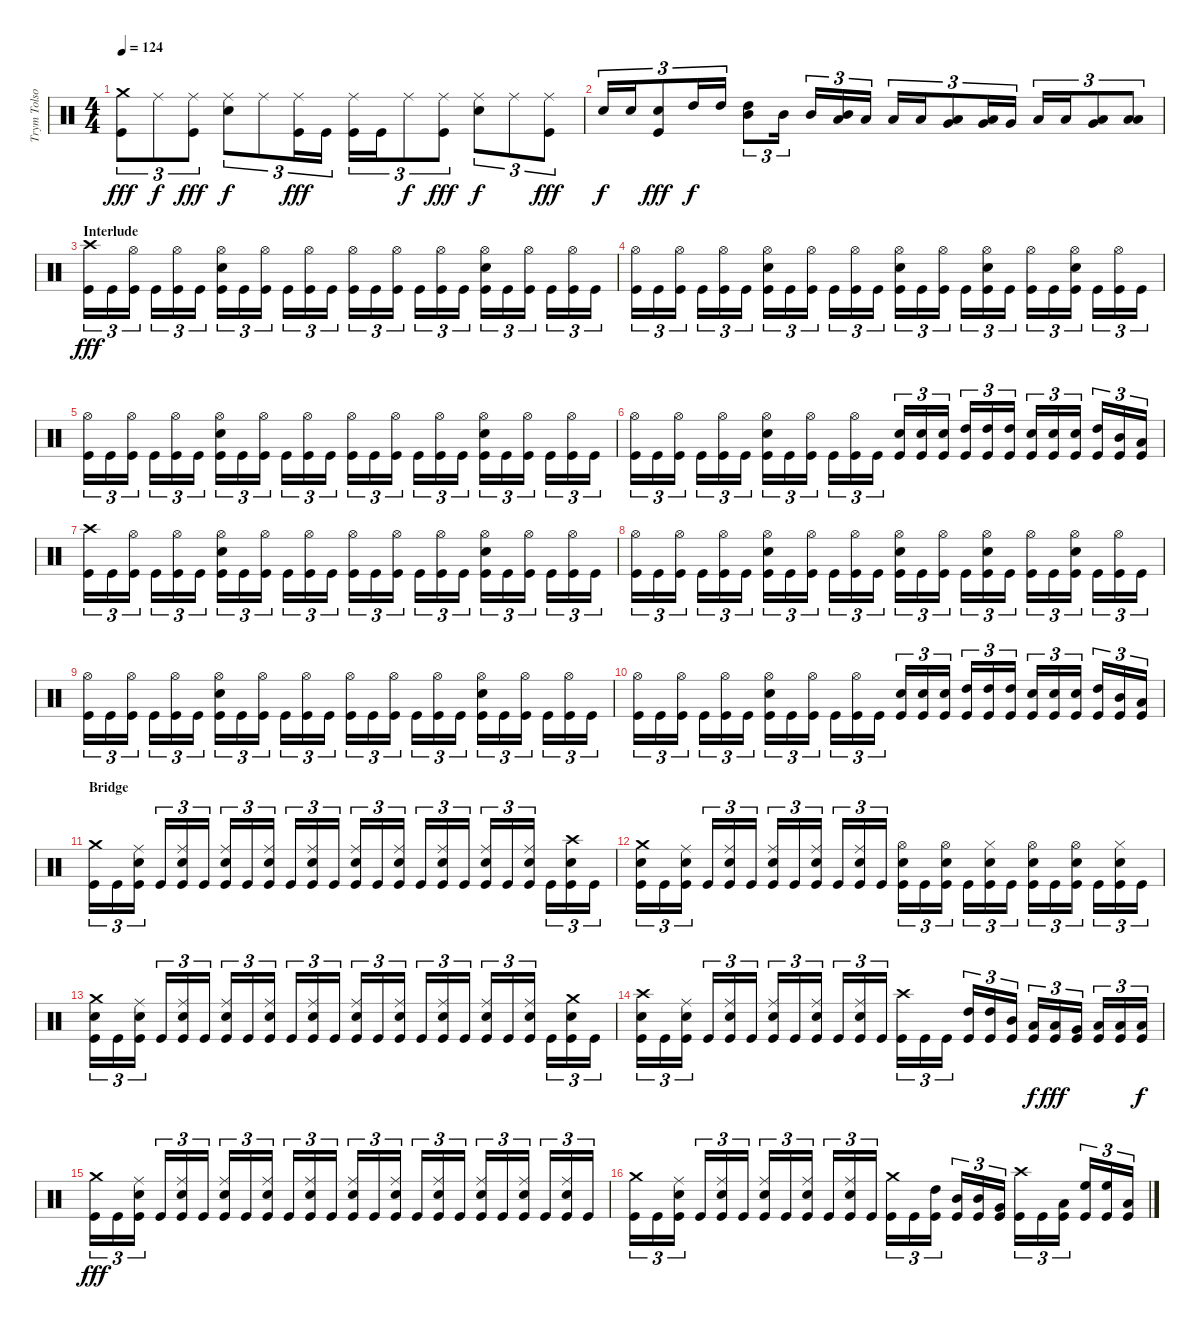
\track ("Trym Tolson" "Trym Tolso") {instrument percussion}
\staff {score}
\articulation defaults
\ts (4 4)
\tempo 124
\clef neutral
\ks c
("Crash medium (hit)" "Kick (hit)").8{tu (3 2) dy fff} "Ride (middle)".8{tu (3 2) dy f} ("Ride (middle)" "Kick (hit)").8{tu (3 2) dy fff} ("Ride (middle)" "Electric Snare (hit)").8{tu (3 2) dy f} "Ride (middle)".8{tu (3 2)} ("Ride (middle)" "Kick (hit)").16{tu (3 2) dy fff} "Kick (hit)".16{tu (3 2)} ("Ride (middle)" "Kick (hit)").16{tu (3 2)} "Kick (hit)".16{tu (3 2)} "Ride (middle)".8{tu (3 2) dy f} ("Ride (middle)" "Kick (hit)").8{tu (3 2) dy fff} ("Ride (middle)" "Electric Snare (hit)").8{tu (3 2) dy f} "Ride (middle)".8{tu (3 2)} ("Ride (middle)" "Kick (hit)").8{tu (3 2) dy fff} |
"Electric Snare (hit)".16{tu (3 2) dy f} "Electric Snare (hit)".16{tu (3 2)} ("Electric Snare (hit)" "Kick (hit)").8{tu (3 2) dy fff} "High Tom (hit)".16{tu (3 2) dy f} "High Tom (hit)".16{tu (3 2)} ("Mid Tom (hit)" "High Tom (hit)").8{tu (3 2)} "Mid Tom (hit)".16{tu (3 2)} "Mid Tom (hit)".16{tu (3 2)} ("Low Tom (hit)" "Mid Tom (hit)").16{tu (3 2)} "Low Tom (hit)".16{tu (3 2)} "Low Tom (hit)".16{tu (3 2)} "Low Tom (hit)".16{tu (3 2)} ("Very Low Tom (hit)" "Low Tom (hit)").8{tu (3 2)} ("Very Low Tom (hit)" "Low Tom (hit)").16{tu (3 2)} "Very Low Tom (hit)".16{tu (3 2)} "Low Floor Tom (hit)".16{tu (3 2)} "Low Floor Tom (hit)".16{tu (3 2)} ("Low Floor Tom (hit)" "Very Low Tom (hit)").8{tu (3 2)} ("Low Floor Tom (hit)" "Low Floor Tom (hit)").8{tu (3 2)} |
\section ("" "Interlude")
("Crash high (hit)" "Kick (hit)").16{tu (3 2) dy fff} "Kick (hit)".16{tu (3 2)} ("Hi-Hat (open)" "Kick (hit)").16{tu (3 2)} "Kick (hit)".16{tu (3 2)} ("Hi-Hat (open)" "Kick (hit)").16{tu (3 2)} "Kick (hit)".16{tu (3 2)} ("Hi-Hat (open)" "Electric Snare (hit)" "Kick (hit)").16{tu (3 2)} "Kick (hit)".16{tu (3 2)} ("Hi-Hat (open)" "Kick (hit)").16{tu (3 2)} "Kick (hit)".16{tu (3 2)} ("Hi-Hat (open)" "Kick (hit)").16{tu (3 2)} "Kick (hit)".16{tu (3 2)} ("Hi-Hat (open)" "Kick (hit)").16{tu (3 2)} "Kick (hit)".16{tu (3 2)} ("Hi-Hat (open)" "Kick (hit)").16{tu (3 2)} "Kick (hit)".16{tu (3 2)} ("Hi-Hat (open)" "Kick (hit)").16{tu (3 2)} "Kick (hit)".16{tu (3 2)} ("Hi-Hat (open)" "Electric Snare (hit)" "Kick (hit)").16{tu (3 2)} "Kick (hit)".16{tu (3 2)} ("Hi-Hat (open)" "Kick (hit)").16{tu (3 2)} "Kick (hit)".16{tu (3 2)} ("Hi-Hat (open)" "Kick (hit)").16{tu (3 2)} "Kick (hit)".16{tu (3 2)} |
("Hi-Hat (open)" "Kick (hit)").16{tu (3 2)} "Kick (hit)".16{tu (3 2)} ("Hi-Hat (open)" "Kick (hit)").16{tu (3 2)} "Kick (hit)".16{tu (3 2)} ("Hi-Hat (open)" "Kick (hit)").16{tu (3 2)} "Kick (hit)".16{tu (3 2)} ("Hi-Hat (open)" "Electric Snare (hit)" "Kick (hit)").16{tu (3 2)} "Kick (hit)".16{tu (3 2)} ("Hi-Hat (open)" "Kick (hit)").16{tu (3 2)} "Kick (hit)".16{tu (3 2)} ("Hi-Hat (open)" "Kick (hit)").16{tu (3 2)} "Kick (hit)".16{tu (3 2)} ("Hi-Hat (open)" "Electric Snare (hit)" "Kick (hit)").16{tu (3 2)} "Kick (hit)".16{tu (3 2)} ("Hi-Hat (open)" "Kick (hit)").16{tu (3 2)} "Kick (hit)".16{tu (3 2)} ("Hi-Hat (open)" "Electric Snare (hit)" "Kick (hit)").16{tu (3 2)} "Kick (hit)".16{tu (3 2)} ("Hi-Hat (open)" "Kick (hit)").16{tu (3 2)} "Kick (hit)".16{tu (3 2)} ("Hi-Hat (open)" "Electric Snare (hit)" "Kick (hit)").16{tu (3 2)} "Kick (hit)".16{tu (3 2)} ("Hi-Hat (open)" "Kick (hit)").16{tu (3 2)} "Kick (hit)".16{tu (3 2)} |
("Hi-Hat (open)" "Kick (hit)").16{tu (3 2)} "Kick (hit)".16{tu (3 2)} ("Hi-Hat (open)" "Kick (hit)").16{tu (3 2)} "Kick (hit)".16{tu (3 2)} ("Hi-Hat (open)" "Kick (hit)").16{tu (3 2)} "Kick (hit)".16{tu (3 2)} ("Hi-Hat (open)" "Electric Snare (hit)" "Kick (hit)").16{tu (3 2)} "Kick (hit)".16{tu (3 2)} ("Hi-Hat (open)" "Kick (hit)").16{tu (3 2)} "Kick (hit)".16{tu (3 2)} ("Hi-Hat (open)" "Kick (hit)").16{tu (3 2)} "Kick (hit)".16{tu (3 2)} ("Hi-Hat (open)" "Kick (hit)").16{tu (3 2)} "Kick (hit)".16{tu (3 2)} ("Hi-Hat (open)" "Kick (hit)").16{tu (3 2)} "Kick (hit)".16{tu (3 2)} ("Hi-Hat (open)" "Kick (hit)").16{tu (3 2)} "Kick (hit)".16{tu (3 2)} ("Hi-Hat (open)" "Electric Snare (hit)" "Kick (hit)").16{tu (3 2)} "Kick (hit)".16{tu (3 2)} ("Hi-Hat (open)" "Kick (hit)").16{tu (3 2)} "Kick (hit)".16{tu (3 2)} ("Hi-Hat (open)" "Kick (hit)").16{tu (3 2)} "Kick (hit)".16{tu (3 2)} |
("Hi-Hat (open)" "Kick (hit)").16{tu (3 2)} "Kick (hit)".16{tu (3 2)} ("Hi-Hat (open)" "Kick (hit)").16{tu (3 2)} "Kick (hit)".16{tu (3 2)} ("Hi-Hat (open)" "Kick (hit)").16{tu (3 2)} "Kick (hit)".16{tu (3 2)} ("Hi-Hat (open)" "Electric Snare (hit)" "Kick (hit)").16{tu (3 2)} "Kick (hit)".16{tu (3 2)} ("Hi-Hat (open)" "Kick (hit)").16{tu (3 2)} "Kick (hit)".16{tu (3 2)} ("Hi-Hat (open)" "Kick (hit)").16{tu (3 2)} "Kick (hit)".16{tu (3 2)} ("Electric Snare (hit)" "Kick (hit)").16{tu (3 2)} ("Electric Snare (hit)" "Kick (hit)").16{tu (3 2)} ("Electric Snare (hit)" "Kick (hit)").16{tu (3 2)} ("High Tom (hit)" "Kick (hit)").16{tu (3 2)} ("High Tom (hit)" "Kick (hit)").16{tu (3 2)} ("High Tom (hit)" "Kick (hit)").16{tu (3 2)} ("Electric Snare (hit)" "Kick (hit)").16{tu (3 2)} ("Electric Snare (hit)" "Kick (hit)").16{tu (3 2)} ("Electric Snare (hit)" "Kick (hit)").16{tu (3 2)} ("High Tom (hit)" "Kick (hit)").16{tu (3 2)} ("Mid Tom (hit)" "Kick (hit)").16{tu (3 2)} ("Low Tom (hit)" "Kick (hit)").16{tu (3 2)} |
("Crash high (hit)" "Kick (hit)").16{tu (3 2)} "Kick (hit)".16{tu (3 2)} ("Hi-Hat (open)" "Kick (hit)").16{tu (3 2)} "Kick (hit)".16{tu (3 2)} ("Hi-Hat (open)" "Kick (hit)").16{tu (3 2)} "Kick (hit)".16{tu (3 2)} ("Hi-Hat (open)" "Electric Snare (hit)" "Kick (hit)").16{tu (3 2)} "Kick (hit)".16{tu (3 2)} ("Hi-Hat (open)" "Kick (hit)").16{tu (3 2)} "Kick (hit)".16{tu (3 2)} ("Hi-Hat (open)" "Kick (hit)").16{tu (3 2)} "Kick (hit)".16{tu (3 2)} ("Hi-Hat (open)" "Kick (hit)").16{tu (3 2)} "Kick (hit)".16{tu (3 2)} ("Hi-Hat (open)" "Kick (hit)").16{tu (3 2)} "Kick (hit)".16{tu (3 2)} ("Hi-Hat (open)" "Kick (hit)").16{tu (3 2)} "Kick (hit)".16{tu (3 2)} ("Hi-Hat (open)" "Electric Snare (hit)" "Kick (hit)").16{tu (3 2)} "Kick (hit)".16{tu (3 2)} ("Hi-Hat (open)" "Kick (hit)").16{tu (3 2)} "Kick (hit)".16{tu (3 2)} ("Hi-Hat (open)" "Kick (hit)").16{tu (3 2)} "Kick (hit)".16{tu (3 2)} |
("Hi-Hat (open)" "Kick (hit)").16{tu (3 2)} "Kick (hit)".16{tu (3 2)} ("Hi-Hat (open)" "Kick (hit)").16{tu (3 2)} "Kick (hit)".16{tu (3 2)} ("Hi-Hat (open)" "Kick (hit)").16{tu (3 2)} "Kick (hit)".16{tu (3 2)} ("Hi-Hat (open)" "Electric Snare (hit)" "Kick (hit)").16{tu (3 2)} "Kick (hit)".16{tu (3 2)} ("Hi-Hat (open)" "Kick (hit)").16{tu (3 2)} "Kick (hit)".16{tu (3 2)} ("Hi-Hat (open)" "Kick (hit)").16{tu (3 2)} "Kick (hit)".16{tu (3 2)} ("Hi-Hat (open)" "Electric Snare (hit)" "Kick (hit)").16{tu (3 2)} "Kick (hit)".16{tu (3 2)} ("Hi-Hat (open)" "Kick (hit)").16{tu (3 2)} "Kick (hit)".16{tu (3 2)} ("Hi-Hat (open)" "Electric Snare (hit)" "Kick (hit)").16{tu (3 2)} "Kick (hit)".16{tu (3 2)} ("Hi-Hat (open)" "Kick (hit)").16{tu (3 2)} "Kick (hit)".16{tu (3 2)} ("Hi-Hat (open)" "Electric Snare (hit)" "Kick (hit)").16{tu (3 2)} "Kick (hit)".16{tu (3 2)} ("Hi-Hat (open)" "Kick (hit)").16{tu (3 2)} "Kick (hit)".16{tu (3 2)} |
("Hi-Hat (open)" "Kick (hit)").16{tu (3 2)} "Kick (hit)".16{tu (3 2)} ("Hi-Hat (open)" "Kick (hit)").16{tu (3 2)} "Kick (hit)".16{tu (3 2)} ("Hi-Hat (open)" "Kick (hit)").16{tu (3 2)} "Kick (hit)".16{tu (3 2)} ("Hi-Hat (open)" "Electric Snare (hit)" "Kick (hit)").16{tu (3 2)} "Kick (hit)".16{tu (3 2)} ("Hi-Hat (open)" "Kick (hit)").16{tu (3 2)} "Kick (hit)".16{tu (3 2)} ("Hi-Hat (open)" "Kick (hit)").16{tu (3 2)} "Kick (hit)".16{tu (3 2)} ("Hi-Hat (open)" "Kick (hit)").16{tu (3 2)} "Kick (hit)".16{tu (3 2)} ("Hi-Hat (open)" "Kick (hit)").16{tu (3 2)} "Kick (hit)".16{tu (3 2)} ("Hi-Hat (open)" "Kick (hit)").16{tu (3 2)} "Kick (hit)".16{tu (3 2)} ("Hi-Hat (open)" "Electric Snare (hit)" "Kick (hit)").16{tu (3 2)} "Kick (hit)".16{tu (3 2)} ("Hi-Hat (open)" "Kick (hit)").16{tu (3 2)} "Kick (hit)".16{tu (3 2)} ("Hi-Hat (open)" "Kick (hit)").16{tu (3 2)} "Kick (hit)".16{tu (3 2)} |
("Hi-Hat (open)" "Kick (hit)").16{tu (3 2)} "Kick (hit)".16{tu (3 2)} ("Hi-Hat (open)" "Kick (hit)").16{tu (3 2)} "Kick (hit)".16{tu (3 2)} ("Hi-Hat (open)" "Kick (hit)").16{tu (3 2)} "Kick (hit)".16{tu (3 2)} ("Hi-Hat (open)" "Electric Snare (hit)" "Kick (hit)").16{tu (3 2)} "Kick (hit)".16{tu (3 2)} ("Hi-Hat (open)" "Kick (hit)").16{tu (3 2)} "Kick (hit)".16{tu (3 2)} ("Hi-Hat (open)" "Kick (hit)").16{tu (3 2)} "Kick (hit)".16{tu (3 2)} ("Electric Snare (hit)" "Kick (hit)").16{tu (3 2)} ("Electric Snare (hit)" "Kick (hit)").16{tu (3 2)} ("Electric Snare (hit)" "Kick (hit)").16{tu (3 2)} ("High Tom (hit)" "Kick (hit)").16{tu (3 2)} ("High Tom (hit)" "Kick (hit)").16{tu (3 2)} ("High Tom (hit)" "Kick (hit)").16{tu (3 2)} ("Electric Snare (hit)" "Kick (hit)").16{tu (3 2)} ("Electric Snare (hit)" "Kick (hit)").16{tu (3 2)} ("Electric Snare (hit)" "Kick (hit)").16{tu (3 2)} ("High Tom (hit)" "Kick (hit)").16{tu (3 2)} ("Mid Tom (hit)" "Kick (hit)").16{tu (3 2)} ("Low Tom (hit)" "Kick (hit)").16{tu (3 2)} |
\section ("" "Bridge")
("Crash medium (hit)" "Kick (hit)").16{tu (3 2)} "Kick (hit)".16{tu (3 2)} ("Ride (middle)" "Electric Snare (hit)" "Kick (hit)").16{tu (3 2)} "Kick (hit)".16{tu (3 2)} ("Ride (middle)" "Electric Snare (hit)" "Kick (hit)").16{tu (3 2)} "Kick (hit)".16{tu (3 2)} ("Ride (middle)" "Electric Snare (hit)" "Kick (hit)").16{tu (3 2)} "Kick (hit)".16{tu (3 2)} ("Ride (middle)" "Electric Snare (hit)" "Kick (hit)").16{tu (3 2)} "Kick (hit)".16{tu (3 2)} ("Ride (middle)" "Electric Snare (hit)" "Kick (hit)").16{tu (3 2)} "Kick (hit)".16{tu (3 2)} ("Ride (middle)" "Electric Snare (hit)" "Kick (hit)").16{tu (3 2)} "Kick (hit)".16{tu (3 2)} ("Ride (middle)" "Electric Snare (hit)" "Kick (hit)").16{tu (3 2)} "Kick (hit)".16{tu (3 2)} ("Ride (middle)" "Electric Snare (hit)" "Kick (hit)").16{tu (3 2)} "Kick (hit)".16{tu (3 2)} ("Ride (middle)" "Electric Snare (hit)" "Kick (hit)").16{tu (3 2)} "Kick (hit)".16{tu (3 2)} ("Ride (middle)" "Electric Snare (hit)" "Kick (hit)").16{tu (3 2)} "Kick (hit)".16{tu (3 2)} ("Crash high (hit)" "Electric Snare (hit)" "Kick (hit)").16{tu (3 2)} "Kick (hit)".16{tu (3 2)} |
("Crash medium (hit)" "Electric Snare (hit)" "Kick (hit)").16{tu (3 2)} "Kick (hit)".16{tu (3 2)} ("Ride (middle)" "Electric Snare (hit)" "Kick (hit)").16{tu (3 2)} "Kick (hit)".16{tu (3 2)} ("Ride (middle)" "Electric Snare (hit)" "Kick (hit)").16{tu (3 2)} "Kick (hit)".16{tu (3 2)} ("Ride (middle)" "Electric Snare (hit)" "Kick (hit)").16{tu (3 2)} "Kick (hit)".16{tu (3 2)} ("Ride (middle)" "Electric Snare (hit)" "Kick (hit)").16{tu (3 2)} "Kick (hit)".16{tu (3 2)} ("Ride (middle)" "Electric Snare (hit)" "Kick (hit)").16{tu (3 2)} "Kick (hit)".16{tu (3 2)} ("Hi-Hat (open)" "Electric Snare (hit)" "Kick (hit)").16{tu (3 2)} "Kick (hit)".16{tu (3 2)} ("Hi-Hat (open)" "Electric Snare (hit)" "Kick (hit)").16{tu (3 2)} "Kick (hit)".16{tu (3 2)} ("Hi-Hat (closed)" "Electric Snare (hit)" "Kick (hit)").16{tu (3 2)} "Kick (hit)".16{tu (3 2)} ("Hi-Hat (open)" "Electric Snare (hit)" "Kick (hit)").16{tu (3 2)} "Kick (hit)".16{tu (3 2)} ("Hi-Hat (open)" "Electric Snare (hit)" "Kick (hit)").16{tu (3 2)} "Kick (hit)".16{tu (3 2)} ("Hi-Hat (closed)" "Electric Snare (hit)" "Kick (hit)").16{tu (3 2)} "Kick (hit)".16{tu (3 2)} |
("Crash medium (hit)" "Electric Snare (hit)" "Kick (hit)").16{tu (3 2)} "Kick (hit)".16{tu (3 2)} ("Ride (middle)" "Electric Snare (hit)" "Kick (hit)").16{tu (3 2)} "Kick (hit)".16{tu (3 2)} ("Ride (middle)" "Electric Snare (hit)" "Kick (hit)").16{tu (3 2)} "Kick (hit)".16{tu (3 2)} ("Ride (middle)" "Electric Snare (hit)" "Kick (hit)").16{tu (3 2)} "Kick (hit)".16{tu (3 2)} ("Ride (middle)" "Electric Snare (hit)" "Kick (hit)").16{tu (3 2)} "Kick (hit)".16{tu (3 2)} ("Ride (middle)" "Electric Snare (hit)" "Kick (hit)").16{tu (3 2)} "Kick (hit)".16{tu (3 2)} ("Ride (middle)" "Electric Snare (hit)" "Kick (hit)").16{tu (3 2)} "Kick (hit)".16{tu (3 2)} ("Ride (middle)" "Electric Snare (hit)" "Kick (hit)").16{tu (3 2)} "Kick (hit)".16{tu (3 2)} ("Ride (middle)" "Electric Snare (hit)" "Kick (hit)").16{tu (3 2)} "Kick (hit)".16{tu (3 2)} ("Ride (middle)" "Electric Snare (hit)" "Kick (hit)").16{tu (3 2)} "Kick (hit)".16{tu (3 2)} ("Ride (middle)" "Electric Snare (hit)" "Kick (hit)").16{tu (3 2)} "Kick (hit)".16{tu (3 2)} ("Crash medium (hit)" "Electric Snare (hit)" "Kick (hit)").16{tu (3 2)} "Kick (hit)".16{tu (3 2)} |
("Crash high (hit)" "Electric Snare (hit)" "Kick (hit)").16{tu (3 2)} "Kick (hit)".16{tu (3 2)} ("Ride (middle)" "Electric Snare (hit)" "Kick (hit)").16{tu (3 2)} "Kick (hit)".16{tu (3 2)} ("Ride (middle)" "Electric Snare (hit)" "Kick (hit)").16{tu (3 2)} "Kick (hit)".16{tu (3 2)} ("Ride (middle)" "Electric Snare (hit)" "Kick (hit)").16{tu (3 2)} "Kick (hit)".16{tu (3 2)} ("Ride (middle)" "Electric Snare (hit)" "Kick (hit)").16{tu (3 2)} "Kick (hit)".16{tu (3 2)} ("Ride (middle)" "Electric Snare (hit)" "Kick (hit)").16{tu (3 2)} "Kick (hit)".16{tu (3 2)} ("Crash high (hit)" "Kick (hit)").16{tu (3 2)} "Kick (hit)".16{tu (3 2)} "Kick (hit)".16{tu (3 2)} ("High Tom (hit)" "Kick (hit)").16{tu (3 2)} ("High Tom (hit)" "Kick (hit)").16{tu (3 2)} ("Mid Tom (hit)" "Kick (hit)").16{tu (3 2)} ("Low Tom (hit)" "Kick (hit)").16{tu (3 2) dy f} ("Low Tom (hit)" "Kick (hit)").16{tu (3 2) dy fff} ("Very Low Tom (hit)" "Kick (hit)").16{tu (3 2)} ("Low Floor Tom (hit)" "Kick (hit)").16{tu (3 2)} ("Low Floor Tom (hit)" "Kick (hit)").16{tu (3 2)} ("Low Floor Tom (hit)" "Kick (hit)").16{tu (3 2) dy f} |
("Crash medium (hit)" "Kick (hit)").16{tu (3 2) dy fff} "Kick (hit)".16{tu (3 2)} ("Ride (middle)" "Electric Snare (hit)" "Kick (hit)").16{tu (3 2)} "Kick (hit)".16{tu (3 2)} ("Ride (middle)" "Electric Snare (hit)" "Kick (hit)").16{tu (3 2)} "Kick (hit)".16{tu (3 2)} ("Ride (middle)" "Electric Snare (hit)" "Kick (hit)").16{tu (3 2)} "Kick (hit)".16{tu (3 2)} ("Ride (middle)" "Electric Snare (hit)" "Kick (hit)").16{tu (3 2)} "Kick (hit)".16{tu (3 2)} ("Ride (middle)" "Electric Snare (hit)" "Kick (hit)").16{tu (3 2)} "Kick (hit)".16{tu (3 2)} ("Ride (middle)" "Electric Snare (hit)" "Kick (hit)").16{tu (3 2)} "Kick (hit)".16{tu (3 2)} ("Ride (middle)" "Electric Snare (hit)" "Kick (hit)").16{tu (3 2)} "Kick (hit)".16{tu (3 2)} ("Ride (middle)" "Electric Snare (hit)" "Kick (hit)").16{tu (3 2)} "Kick (hit)".16{tu (3 2)} ("Ride (middle)" "Electric Snare (hit)" "Kick (hit)").16{tu (3 2)} "Kick (hit)".16{tu (3 2)} ("Ride (middle)" "Electric Snare (hit)" "Kick (hit)").16{tu (3 2)} "Kick (hit)".16{tu (3 2)} ("Ride (middle)" "Electric Snare (hit)" "Kick (hit)").16{tu (3 2)} "Kick (hit)".16{tu (3 2)} |
("Crash medium (hit)" "Kick (hit)").16{tu (3 2)} "Kick (hit)".16{tu (3 2)} ("Ride (middle)" "Electric Snare (hit)" "Kick (hit)").16{tu (3 2)} "Kick (hit)".16{tu (3 2)} ("Ride (middle)" "Electric Snare (hit)" "Kick (hit)").16{tu (3 2)} "Kick (hit)".16{tu (3 2)} ("Ride (middle)" "Electric Snare (hit)" "Kick (hit)").16{tu (3 2)} "Kick (hit)".16{tu (3 2)} ("Ride (middle)" "Electric Snare (hit)" "Kick (hit)").16{tu (3 2)} "Kick (hit)".16{tu (3 2)} ("Ride (middle)" "Electric Snare (hit)" "Kick (hit)").16{tu (3 2)} "Kick (hit)".16{tu (3 2)} ("Crash medium (hit)" "Kick (hit)").16{tu (3 2)} "Kick (hit)".16{tu (3 2)} ("High Tom (hit)" "Kick (hit)").16{tu (3 2)} ("Mid Tom (hit)" "Kick (hit)").16{tu (3 2)} ("Mid Tom (hit)" "Kick (hit)").16{tu (3 2)} ("Very Low Tom (hit)" "Kick (hit)").16{tu (3 2)} ("Crash high (hit)" "Kick (hit)").16{tu (3 2)} "Kick (hit)".16{tu (3 2)} ("Low Tom (hit)" "Kick (hit)").16{tu (3 2)} ("High Floor Tom (hit)" "Kick (hit)").16{tu (3 2)} ("High Floor Tom (hit)" "Kick (hit)").16{tu (3 2)} ("Low Floor Tom (hit)" "Kick (hit)").16{tu (3 2)}
